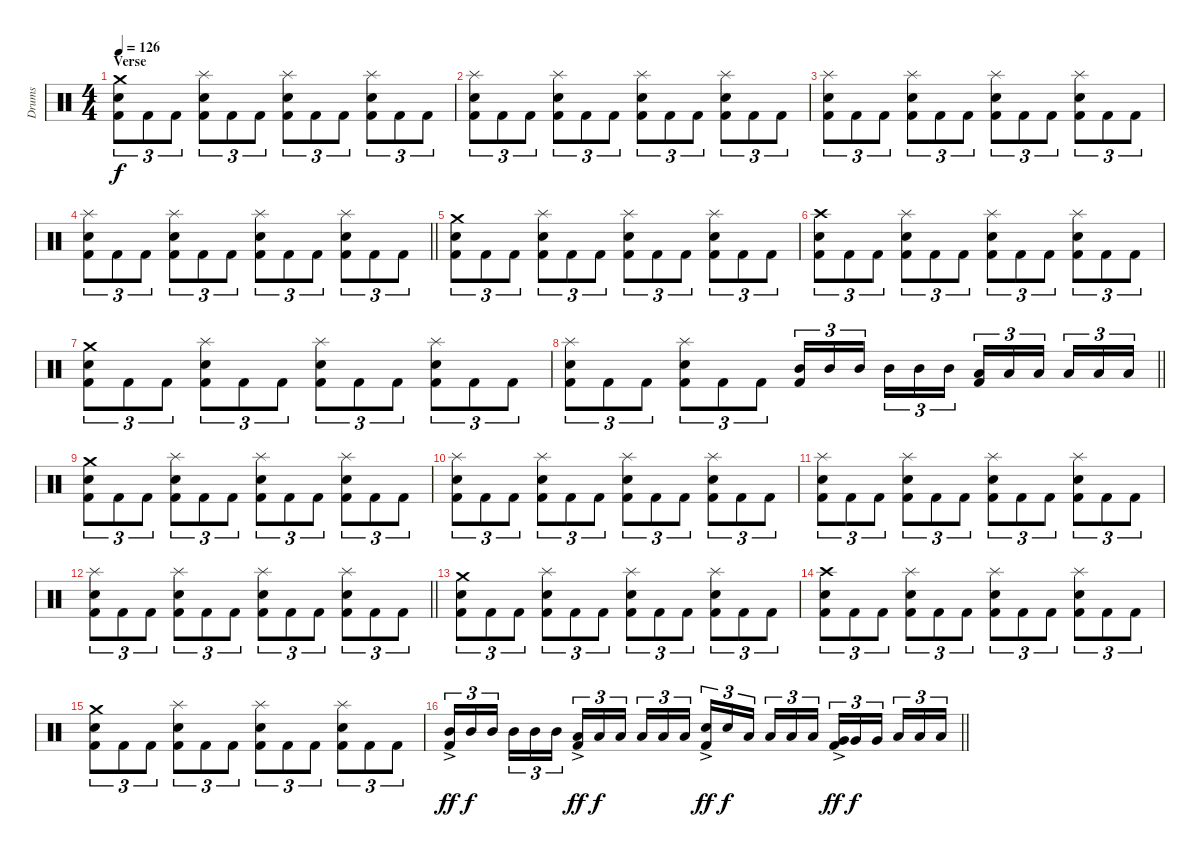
\track ("Drums" "Drums") {instrument percussion}
\staff {score}
\articulation defaults
\ts (4 4)
\section ("" "Verse")
\tempo 126
\clef neutral
\ks c
("Kick (hit) 2" "Snare (hit) 2" "Crash medium (hit)").8{tu (3 2) dy f} "Kick (hit) 2".8{tu (3 2)} "Kick (hit) 2".8{tu (3 2)} ("Kick (hit) 2" "Snare (hit) 2" "Splash (hit)").8{tu (3 2)} "Kick (hit) 2".8{tu (3 2)} "Kick (hit) 2".8{tu (3 2)} ("Kick (hit) 2" "Snare (hit) 2" "Splash (hit)").8{tu (3 2)} "Kick (hit) 2".8{tu (3 2)} "Kick (hit) 2".8{tu (3 2)} ("Kick (hit) 2" "Snare (hit) 2" "Splash (hit)").8{tu (3 2)} "Kick (hit) 2".8{tu (3 2)} "Kick (hit) 2".8{tu (3 2)} |
("Kick (hit) 2" "Snare (hit) 2" "Splash (hit)").8{tu (3 2)} "Kick (hit) 2".8{tu (3 2)} "Kick (hit) 2".8{tu (3 2)} ("Kick (hit) 2" "Snare (hit) 2" "Splash (hit)").8{tu (3 2)} "Kick (hit) 2".8{tu (3 2)} "Kick (hit) 2".8{tu (3 2)} ("Kick (hit) 2" "Snare (hit) 2" "Splash (hit)").8{tu (3 2)} "Kick (hit) 2".8{tu (3 2)} "Kick (hit) 2".8{tu (3 2)} ("Kick (hit) 2" "Snare (hit) 2" "Splash (hit)").8{tu (3 2)} "Kick (hit) 2".8{tu (3 2)} "Kick (hit) 2".8{tu (3 2)} |
("Kick (hit) 2" "Snare (hit) 2" "Splash (hit)").8{tu (3 2)} "Kick (hit) 2".8{tu (3 2)} "Kick (hit) 2".8{tu (3 2)} ("Kick (hit) 2" "Snare (hit) 2" "Splash (hit)").8{tu (3 2)} "Kick (hit) 2".8{tu (3 2)} "Kick (hit) 2".8{tu (3 2)} ("Kick (hit) 2" "Snare (hit) 2" "Splash (hit)").8{tu (3 2)} "Kick (hit) 2".8{tu (3 2)} "Kick (hit) 2".8{tu (3 2)} ("Kick (hit) 2" "Snare (hit) 2" "Splash (hit)").8{tu (3 2)} "Kick (hit) 2".8{tu (3 2)} "Kick (hit) 2".8{tu (3 2)} |
\barLineRight lightlight
("Kick (hit) 2" "Snare (hit) 2" "Splash (hit)").8{tu (3 2)} "Kick (hit) 2".8{tu (3 2)} "Kick (hit) 2".8{tu (3 2)} ("Kick (hit) 2" "Snare (hit) 2" "Splash (hit)").8{tu (3 2)} "Kick (hit) 2".8{tu (3 2)} "Kick (hit) 2".8{tu (3 2)} ("Kick (hit) 2" "Snare (hit) 2" "Splash (hit)").8{tu (3 2)} "Kick (hit) 2".8{tu (3 2)} "Kick (hit) 2".8{tu (3 2)} ("Kick (hit) 2" "Snare (hit) 2" "Splash (hit)").8{tu (3 2)} "Kick (hit) 2".8{tu (3 2)} "Kick (hit) 2".8{tu (3 2)} |
\section ("" "")
("Kick (hit) 2" "Snare (hit) 2" "Crash medium (hit)").8{tu (3 2)} "Kick (hit) 2".8{tu (3 2)} "Kick (hit) 2".8{tu (3 2)} ("Kick (hit) 2" "Snare (hit) 2" "Splash (hit)").8{tu (3 2)} "Kick (hit) 2".8{tu (3 2)} "Kick (hit) 2".8{tu (3 2)} ("Kick (hit) 2" "Snare (hit) 2" "Splash (hit)").8{tu (3 2)} "Kick (hit) 2".8{tu (3 2)} "Kick (hit) 2".8{tu (3 2)} ("Kick (hit) 2" "Snare (hit) 2" "Splash (hit)").8{tu (3 2)} "Kick (hit) 2".8{tu (3 2)} "Kick (hit) 2".8{tu (3 2)} |
("Kick (hit) 2" "Snare (hit) 2" "Crash high (hit)").8{tu (3 2)} "Kick (hit) 2".8{tu (3 2)} "Kick (hit) 2".8{tu (3 2)} ("Kick (hit) 2" "Snare (hit) 2" "Splash (hit)").8{tu (3 2)} "Kick (hit) 2".8{tu (3 2)} "Kick (hit) 2".8{tu (3 2)} ("Kick (hit) 2" "Snare (hit) 2" "Splash (hit)").8{tu (3 2)} "Kick (hit) 2".8{tu (3 2)} "Kick (hit) 2".8{tu (3 2)} ("Kick (hit) 2" "Snare (hit) 2" "Splash (hit)").8{tu (3 2)} "Kick (hit) 2".8{tu (3 2)} "Kick (hit) 2".8{tu (3 2)} |
("Kick (hit) 2" "Snare (hit) 2" "Crash medium (hit)").8{tu (3 2)} "Kick (hit) 2".8{tu (3 2)} "Kick (hit) 2".8{tu (3 2)} ("Kick (hit) 2" "Snare (hit) 2" "Splash (hit)").8{tu (3 2)} "Kick (hit) 2".8{tu (3 2)} "Kick (hit) 2".8{tu (3 2)} ("Kick (hit) 2" "Snare (hit) 2" "Splash (hit)").8{tu (3 2)} "Kick (hit) 2".8{tu (3 2)} "Kick (hit) 2".8{tu (3 2)} ("Kick (hit) 2" "Snare (hit) 2" "Splash (hit)").8{tu (3 2)} "Kick (hit) 2".8{tu (3 2)} "Kick (hit) 2".8{tu (3 2)} |
\barLineRight lightlight
("Kick (hit) 2" "Snare (hit) 2" "Splash (hit)").8{tu (3 2)} "Kick (hit) 2".8{tu (3 2)} "Kick (hit) 2".8{tu (3 2)} ("Kick (hit) 2" "Snare (hit) 2" "Splash (hit)").8{tu (3 2)} "Kick (hit) 2".8{tu (3 2)} "Kick (hit) 2".8{tu (3 2)} ("Kick (hit) 2" "Mid Tom (hit)").16{tu (3 2)} "Mid Tom (hit)".16{tu (3 2)} "Mid Tom (hit)".16{tu (3 2) beam splitsecondary} "Mid Tom (hit)".16{tu (3 2)} "Mid Tom (hit)".16{tu (3 2)} "Mid Tom (hit)".16{tu (3 2)} ("Kick (hit) 2" "Low Tom (hit)").16{tu (3 2)} "Low Tom (hit)".16{tu (3 2)} "Low Tom (hit)".16{tu (3 2) beam splitsecondary} "Low Tom (hit)".16{tu (3 2)} "Low Tom (hit)".16{tu (3 2)} "Low Tom (hit)".16{tu (3 2)} |
\section ("" "")
("Kick (hit) 2" "Snare (hit) 2" "Crash medium (hit)").8{tu (3 2)} "Kick (hit) 2".8{tu (3 2)} "Kick (hit) 2".8{tu (3 2)} ("Kick (hit) 2" "Snare (hit) 2" "Splash (hit)").8{tu (3 2)} "Kick (hit) 2".8{tu (3 2)} "Kick (hit) 2".8{tu (3 2)} ("Kick (hit) 2" "Snare (hit) 2" "Splash (hit)").8{tu (3 2)} "Kick (hit) 2".8{tu (3 2)} "Kick (hit) 2".8{tu (3 2)} ("Kick (hit) 2" "Snare (hit) 2" "Splash (hit)").8{tu (3 2)} "Kick (hit) 2".8{tu (3 2)} "Kick (hit) 2".8{tu (3 2)} |
("Kick (hit) 2" "Snare (hit) 2" "Splash (hit)").8{tu (3 2)} "Kick (hit) 2".8{tu (3 2)} "Kick (hit) 2".8{tu (3 2)} ("Kick (hit) 2" "Snare (hit) 2" "Splash (hit)").8{tu (3 2)} "Kick (hit) 2".8{tu (3 2)} "Kick (hit) 2".8{tu (3 2)} ("Kick (hit) 2" "Snare (hit) 2" "Splash (hit)").8{tu (3 2)} "Kick (hit) 2".8{tu (3 2)} "Kick (hit) 2".8{tu (3 2)} ("Kick (hit) 2" "Snare (hit) 2" "Splash (hit)").8{tu (3 2)} "Kick (hit) 2".8{tu (3 2)} "Kick (hit) 2".8{tu (3 2)} |
("Kick (hit) 2" "Snare (hit) 2" "Splash (hit)").8{tu (3 2)} "Kick (hit) 2".8{tu (3 2)} "Kick (hit) 2".8{tu (3 2)} ("Kick (hit) 2" "Snare (hit) 2" "Splash (hit)").8{tu (3 2)} "Kick (hit) 2".8{tu (3 2)} "Kick (hit) 2".8{tu (3 2)} ("Kick (hit) 2" "Snare (hit) 2" "Splash (hit)").8{tu (3 2)} "Kick (hit) 2".8{tu (3 2)} "Kick (hit) 2".8{tu (3 2)} ("Kick (hit) 2" "Snare (hit) 2" "Splash (hit)").8{tu (3 2)} "Kick (hit) 2".8{tu (3 2)} "Kick (hit) 2".8{tu (3 2)} |
\barLineRight lightlight
("Kick (hit) 2" "Snare (hit) 2" "Splash (hit)").8{tu (3 2)} "Kick (hit) 2".8{tu (3 2)} "Kick (hit) 2".8{tu (3 2)} ("Kick (hit) 2" "Snare (hit) 2" "Splash (hit)").8{tu (3 2)} "Kick (hit) 2".8{tu (3 2)} "Kick (hit) 2".8{tu (3 2)} ("Kick (hit) 2" "Snare (hit) 2" "Splash (hit)").8{tu (3 2)} "Kick (hit) 2".8{tu (3 2)} "Kick (hit) 2".8{tu (3 2)} ("Kick (hit) 2" "Snare (hit) 2" "Splash (hit)").8{tu (3 2)} "Kick (hit) 2".8{tu (3 2)} "Kick (hit) 2".8{tu (3 2)} |
\section ("" "")
("Kick (hit) 2" "Snare (hit) 2" "Crash medium (hit)").8{tu (3 2)} "Kick (hit) 2".8{tu (3 2)} "Kick (hit) 2".8{tu (3 2)} ("Kick (hit) 2" "Snare (hit) 2" "Splash (hit)").8{tu (3 2)} "Kick (hit) 2".8{tu (3 2)} "Kick (hit) 2".8{tu (3 2)} ("Kick (hit) 2" "Snare (hit) 2" "Splash (hit)").8{tu (3 2)} "Kick (hit) 2".8{tu (3 2)} "Kick (hit) 2".8{tu (3 2)} ("Kick (hit) 2" "Snare (hit) 2" "Splash (hit)").8{tu (3 2)} "Kick (hit) 2".8{tu (3 2)} "Kick (hit) 2".8{tu (3 2)} |
("Kick (hit) 2" "Snare (hit) 2" "Crash high (hit)").8{tu (3 2)} "Kick (hit) 2".8{tu (3 2)} "Kick (hit) 2".8{tu (3 2)} ("Kick (hit) 2" "Snare (hit) 2" "Splash (hit)").8{tu (3 2)} "Kick (hit) 2".8{tu (3 2)} "Kick (hit) 2".8{tu (3 2)} ("Kick (hit) 2" "Snare (hit) 2" "Splash (hit)").8{tu (3 2)} "Kick (hit) 2".8{tu (3 2)} "Kick (hit) 2".8{tu (3 2)} ("Kick (hit) 2" "Snare (hit) 2" "Splash (hit)").8{tu (3 2)} "Kick (hit) 2".8{tu (3 2)} "Kick (hit) 2".8{tu (3 2)} |
("Kick (hit) 2" "Snare (hit) 2" "Crash medium (hit)").8{tu (3 2)} "Kick (hit) 2".8{tu (3 2)} "Kick (hit) 2".8{tu (3 2)} ("Kick (hit) 2" "Snare (hit) 2" "Splash (hit)").8{tu (3 2)} "Kick (hit) 2".8{tu (3 2)} "Kick (hit) 2".8{tu (3 2)} ("Kick (hit) 2" "Snare (hit) 2" "Splash (hit)").8{tu (3 2)} "Kick (hit) 2".8{tu (3 2)} "Kick (hit) 2".8{tu (3 2)} ("Kick (hit) 2" "Snare (hit) 2" "Splash (hit)").8{tu (3 2)} "Kick (hit) 2".8{tu (3 2)} "Kick (hit) 2".8{tu (3 2)} |
\barLineRight lightlight
("Kick (hit) 2"{ac} "Mid Tom (hit)").16{tu (3 2) dy ff} "Mid Tom (hit)".16{tu (3 2) dy f} "Mid Tom (hit)".16{tu (3 2) beam splitsecondary} "Mid Tom (hit)".16{tu (3 2)} "Mid Tom (hit)".16{tu (3 2)} "Mid Tom (hit)".16{tu (3 2)} ("Kick (hit) 2"{ac} "Low Tom (hit)").16{tu (3 2) dy ff} "Low Tom (hit)".16{tu (3 2) dy f} "Low Tom (hit)".16{tu (3 2) beam splitsecondary} "Low Tom (hit)".16{tu (3 2)} "Low Tom (hit)".16{tu (3 2)} "Low Tom (hit)".16{tu (3 2)} ("Kick (hit) 2"{ac} "Snare (hit) 2").16{tu (3 2) dy ff} "Snare (hit) 2".16{tu (3 2) dy f} "Low Tom (hit)".16{tu (3 2) beam splitsecondary} "Low Tom (hit)".16{tu (3 2)} "Low Tom (hit)".16{tu (3 2)} "Low Tom (hit)".16{tu (3 2)} ("Kick (hit) 2"{ac} "Very Low Tom (hit)").16{tu (3 2) dy ff} "Very Low Tom (hit)".16{tu (3 2) dy f} "Very Low Tom (hit)".16{tu (3 2) beam splitsecondary} "Low Floor Tom (hit)".16{tu (3 2)} "Low Floor Tom (hit)".16{tu (3 2)} "Low Floor Tom (hit)".16{tu (3 2)}
